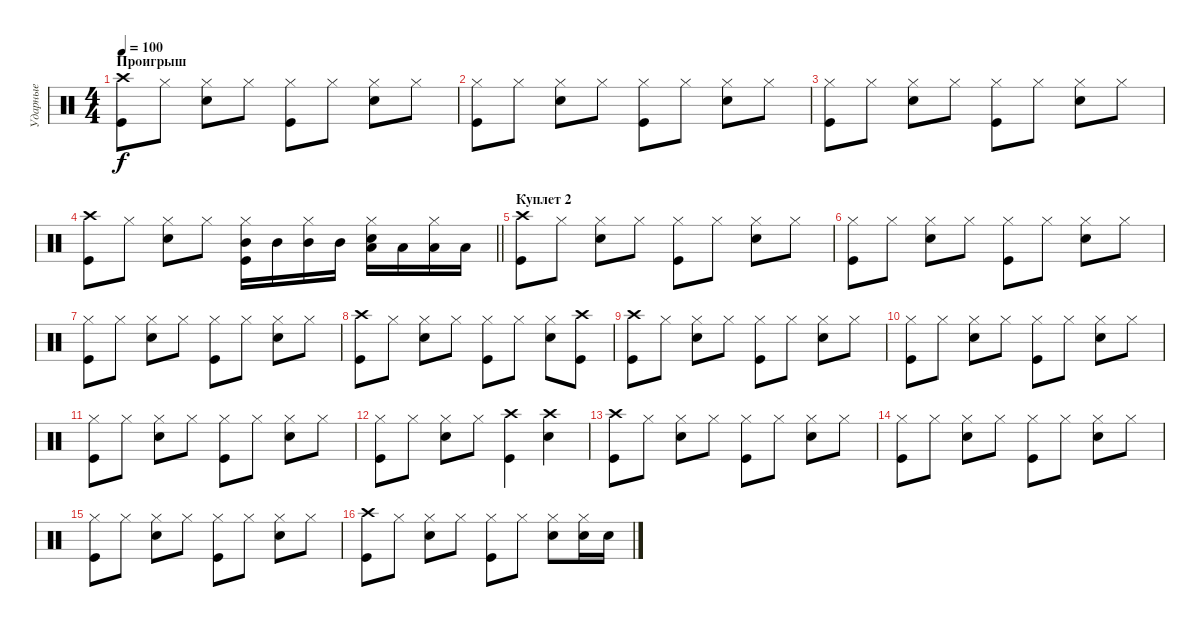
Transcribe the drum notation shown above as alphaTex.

\track ("Ударные" "Ударные") {instrument percussion}
\staff {score}
\articulation defaults
\ts (4 4)
\section ("" "Проигрыш")
\tempo 100
\clef neutral
\ks c
("Kick (hit)" "Crash high (hit)").8{dy f} "Hi-Hat (closed)".8 ("Snare (hit) 2" "Hi-Hat (closed)").8 "Hi-Hat (closed)".8 ("Kick (hit)" "Hi-Hat (closed)").8 "Hi-Hat (closed)".8 ("Snare (hit) 2" "Hi-Hat (closed)").8 "Hi-Hat (closed)".8 |
("Kick (hit)" "Hi-Hat (closed)").8 "Hi-Hat (closed)".8 ("Snare (hit) 2" "Hi-Hat (closed)").8 "Hi-Hat (closed)".8 ("Kick (hit)" "Hi-Hat (closed)").8 "Hi-Hat (closed)".8 ("Snare (hit) 2" "Hi-Hat (closed)").8 "Hi-Hat (closed)".8 |
("Kick (hit)" "Hi-Hat (closed)").8 "Hi-Hat (closed)".8 ("Snare (hit) 2" "Hi-Hat (closed)").8 "Hi-Hat (closed)".8 ("Kick (hit)" "Hi-Hat (closed)").8 "Hi-Hat (closed)".8 ("Snare (hit) 2" "Hi-Hat (closed)").8 "Hi-Hat (closed)".8 |
\barLineRight lightlight
("Kick (hit)" "Crash high (hit)").8 "Hi-Hat (closed)".8 ("Snare (hit) 2" "Hi-Hat (closed)").8 "Hi-Hat (closed)".8 ("Kick (hit)" "Mid Tom (hit)" "Hi-Hat (closed)").16 "Mid Tom (hit)".16 ("Mid Tom (hit)" "Hi-Hat (closed)").16 "Mid Tom (hit)".16 ("Snare (hit) 2" "Low Tom (hit)" "Hi-Hat (closed)").16 "Low Tom (hit)".16 ("Low Tom (hit)" "Hi-Hat (closed)").16 "Low Tom (hit)".16 |
\section ("" "Куплет 2")
("Kick (hit)" "Crash high (hit)").8 "Hi-Hat (closed)".8 ("Snare (hit) 2" "Hi-Hat (closed)").8 "Hi-Hat (closed)".8 ("Kick (hit)" "Hi-Hat (closed)").8 "Hi-Hat (closed)".8 ("Snare (hit) 2" "Hi-Hat (closed)").8 "Hi-Hat (closed)".8 |
("Kick (hit)" "Hi-Hat (closed)").8 "Hi-Hat (closed)".8 ("Snare (hit) 2" "Hi-Hat (closed)").8 "Hi-Hat (closed)".8 ("Kick (hit)" "Hi-Hat (closed)").8 "Hi-Hat (closed)".8 ("Snare (hit) 2" "Hi-Hat (closed)").8 "Hi-Hat (closed)".8 |
("Kick (hit)" "Hi-Hat (closed)").8 "Hi-Hat (closed)".8 ("Snare (hit) 2" "Hi-Hat (closed)").8 "Hi-Hat (closed)".8 ("Kick (hit)" "Hi-Hat (closed)").8 "Hi-Hat (closed)".8 ("Snare (hit) 2" "Hi-Hat (closed)").8 "Hi-Hat (closed)".8 |
("Kick (hit)" "Crash high (hit)").8 "Hi-Hat (closed)".8 ("Snare (hit) 2" "Hi-Hat (closed)").8 "Hi-Hat (closed)".8 ("Kick (hit)" "Hi-Hat (closed)").8 "Hi-Hat (closed)".8 ("Snare (hit) 2" "Hi-Hat (closed)").8 ("Kick (hit)" "Crash high (hit)").8 |
("Kick (hit)" "Crash high (hit)").8 "Hi-Hat (closed)".8 ("Snare (hit) 2" "Hi-Hat (closed)").8 "Hi-Hat (closed)".8 ("Kick (hit)" "Hi-Hat (closed)").8 "Hi-Hat (closed)".8 ("Snare (hit) 2" "Hi-Hat (closed)").8 "Hi-Hat (closed)".8 |
("Kick (hit)" "Hi-Hat (closed)").8 "Hi-Hat (closed)".8 ("Snare (hit) 2" "Hi-Hat (closed)").8 "Hi-Hat (closed)".8 ("Kick (hit)" "Hi-Hat (closed)").8 "Hi-Hat (closed)".8 ("Snare (hit) 2" "Hi-Hat (closed)").8 "Hi-Hat (closed)".8 |
("Kick (hit)" "Hi-Hat (closed)").8 "Hi-Hat (closed)".8 ("Snare (hit) 2" "Hi-Hat (closed)").8 "Hi-Hat (closed)".8 ("Kick (hit)" "Hi-Hat (closed)").8 "Hi-Hat (closed)".8 ("Snare (hit) 2" "Hi-Hat (closed)").8 "Hi-Hat (closed)".8 |
("Kick (hit)" "Hi-Hat (closed)").8 "Hi-Hat (closed)".8 ("Snare (hit) 2" "Hi-Hat (closed)").8 "Hi-Hat (closed)".8 ("Kick (hit)" "Crash high (hit)").4 ("Snare (hit) 2" "Crash high (hit)").4 |
("Kick (hit)" "Crash high (hit)").8 "Hi-Hat (closed)".8 ("Snare (hit) 2" "Hi-Hat (closed)").8 "Hi-Hat (closed)".8 ("Kick (hit)" "Hi-Hat (closed)").8 "Hi-Hat (closed)".8 ("Snare (hit) 2" "Hi-Hat (closed)").8 "Hi-Hat (closed)".8 |
("Kick (hit)" "Hi-Hat (closed)").8 "Hi-Hat (closed)".8 ("Snare (hit) 2" "Hi-Hat (closed)").8 "Hi-Hat (closed)".8 ("Kick (hit)" "Hi-Hat (closed)").8 "Hi-Hat (closed)".8 ("Snare (hit) 2" "Hi-Hat (closed)").8 "Hi-Hat (closed)".8 |
("Kick (hit)" "Hi-Hat (closed)").8 "Hi-Hat (closed)".8 ("Snare (hit) 2" "Hi-Hat (closed)").8 "Hi-Hat (closed)".8 ("Kick (hit)" "Hi-Hat (closed)").8 "Hi-Hat (closed)".8 ("Snare (hit) 2" "Hi-Hat (closed)").8 "Hi-Hat (closed)".8 |
("Kick (hit)" "Crash high (hit)").8 "Hi-Hat (closed)".8 ("Snare (hit) 2" "Hi-Hat (closed)").8 "Hi-Hat (closed)".8 ("Kick (hit)" "Hi-Hat (closed)").8 "Hi-Hat (closed)".8 ("Snare (hit) 2" "Hi-Hat (closed)").8 ("Snare (hit) 2" "Hi-Hat (closed)").16 "Snare (hit) 2".16
